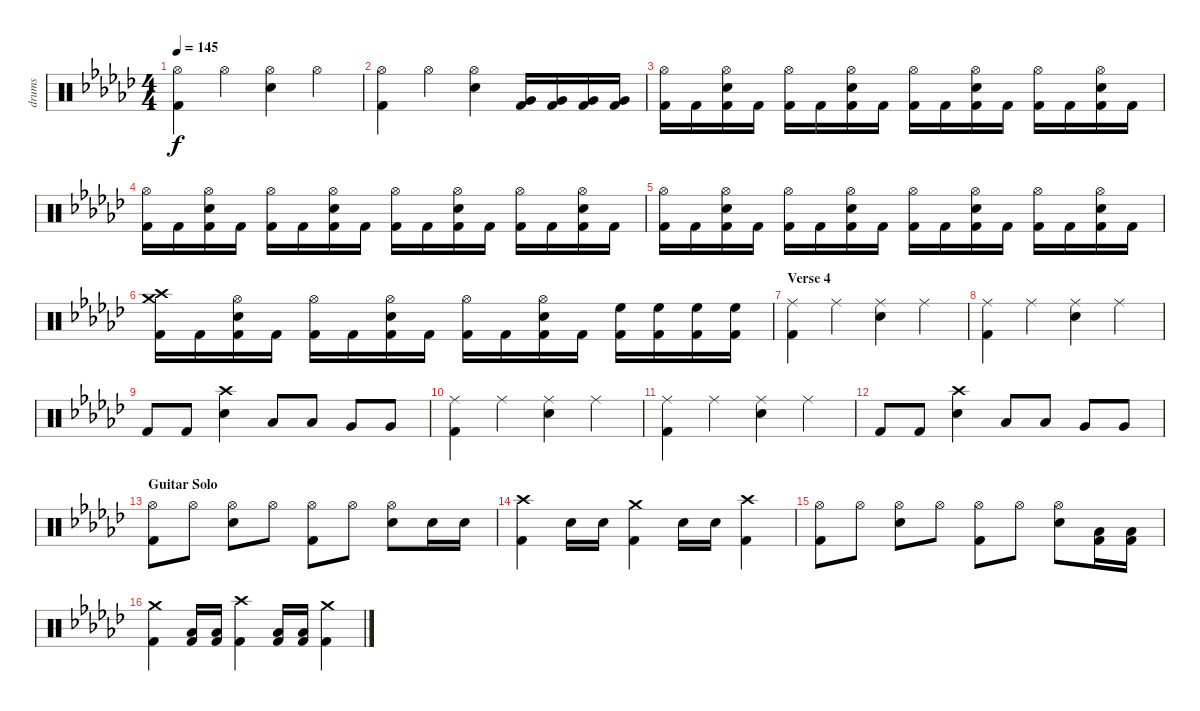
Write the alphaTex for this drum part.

\track ("drums" "drums") {instrument percussion}
\staff {score}
\articulation defaults
\ts (4 4)
\tempo 145
\clef neutral
\ks gb
("Hi-Hat (open)" "Kick (hit) 2").4{dy f} "Hi-Hat (open)".4 ("Hi-Hat (open)" "Electric Snare (hit)").4 "Hi-Hat (open)".4 |
("Hi-Hat (open)" "Kick (hit) 2").4 "Hi-Hat (open)".4 ("Hi-Hat (open)" "Electric Snare (hit)").4 ("Very Low Tom (hit)" "Kick (hit) 2").16 ("Very Low Tom (hit)" "Kick (hit) 2").16 ("Very Low Tom (hit)" "Kick (hit) 2").16 ("Very Low Tom (hit)" "Kick (hit) 2").16 |
("Hi-Hat (open)" "Kick (hit) 2").16 "Kick (hit) 2".16 ("Hi-Hat (open)" "Electric Snare (hit)" "Kick (hit) 2").16 "Kick (hit) 2".16 ("Hi-Hat (open)" "Kick (hit) 2").16 "Kick (hit) 2".16 ("Hi-Hat (open)" "Electric Snare (hit)" "Kick (hit) 2").16 "Kick (hit) 2".16 ("Hi-Hat (open)" "Kick (hit) 2").16 "Kick (hit) 2".16 ("Hi-Hat (open)" "Electric Snare (hit)" "Kick (hit) 2").16 "Kick (hit) 2".16 ("Hi-Hat (open)" "Kick (hit) 2").16 "Kick (hit) 2".16 ("Hi-Hat (open)" "Electric Snare (hit)" "Kick (hit) 2").16 "Kick (hit) 2".16 |
("Hi-Hat (open)" "Kick (hit) 2").16 "Kick (hit) 2".16 ("Hi-Hat (open)" "Electric Snare (hit)" "Kick (hit) 2").16 "Kick (hit) 2".16 ("Hi-Hat (open)" "Kick (hit) 2").16 "Kick (hit) 2".16 ("Hi-Hat (open)" "Electric Snare (hit)" "Kick (hit) 2").16 "Kick (hit) 2".16 ("Hi-Hat (open)" "Kick (hit) 2").16 "Kick (hit) 2".16 ("Hi-Hat (open)" "Electric Snare (hit)" "Kick (hit) 2").16 "Kick (hit) 2".16 ("Hi-Hat (open)" "Kick (hit) 2").16 "Kick (hit) 2".16 ("Hi-Hat (open)" "Electric Snare (hit)" "Kick (hit) 2").16 "Kick (hit) 2".16 |
("Hi-Hat (open)" "Kick (hit) 2").16 "Kick (hit) 2".16 ("Hi-Hat (open)" "Electric Snare (hit)" "Kick (hit) 2").16 "Kick (hit) 2".16 ("Hi-Hat (open)" "Kick (hit) 2").16 "Kick (hit) 2".16 ("Hi-Hat (open)" "Electric Snare (hit)" "Kick (hit) 2").16 "Kick (hit) 2".16 ("Hi-Hat (open)" "Kick (hit) 2").16 "Kick (hit) 2".16 ("Hi-Hat (open)" "Electric Snare (hit)" "Kick (hit) 2").16 "Kick (hit) 2".16 ("Hi-Hat (open)" "Kick (hit) 2").16 "Kick (hit) 2".16 ("Hi-Hat (open)" "Electric Snare (hit)" "Kick (hit) 2").16 "Kick (hit) 2".16 |
("Crash high (hit)" "Crash medium (hit)" "Kick (hit) 2").16 "Kick (hit) 2".16 ("Hi-Hat (open)" "Electric Snare (hit)" "Kick (hit) 2").16 "Kick (hit) 2".16 ("Hi-Hat (open)" "Kick (hit) 2").16 "Kick (hit) 2".16 ("Hi-Hat (open)" "Electric Snare (hit)" "Kick (hit) 2").16 "Kick (hit) 2".16 ("Hi-Hat (open)" "Kick (hit) 2").16 "Kick (hit) 2".16 ("Hi-Hat (open)" "Electric Snare (hit)" "Kick (hit) 2").16 "Kick (hit) 2".16 ("High Floor Tom (hit)" "Kick (hit) 2").16 ("High Floor Tom (hit)" "Kick (hit) 2").16 ("High Floor Tom (hit)" "Kick (hit) 2").16 ("High Floor Tom (hit)" "Kick (hit) 2").16 |
\section ("" "Verse 4")
("Ride (middle)" "Kick (hit) 2").4 "Ride (middle)".4 ("Ride (middle)" "Electric Snare (hit)").4 "Ride (middle)".4 |
("Ride (middle)" "Kick (hit) 2").4 "Ride (middle)".4 ("Ride (middle)" "Electric Snare (hit)").4 "Ride (middle)".4 |
"Kick (hit) 2".8 "Kick (hit) 2".8 ("Crash high (hit)" "Electric Snare (hit)").4 "Low Tom (hit)".8 "Low Tom (hit)".8 "Very Low Tom (hit)".8 "Very Low Tom (hit)".8 |
("Ride (middle)" "Kick (hit) 2").4 "Ride (middle)".4 ("Ride (middle)" "Electric Snare (hit)").4 "Ride (middle)".4 |
("Ride (middle)" "Kick (hit) 2").4 "Ride (middle)".4 ("Ride (middle)" "Electric Snare (hit)").4 "Ride (middle)".4 |
"Kick (hit) 2".8 "Kick (hit) 2".8 ("Crash high (hit)" "Electric Snare (hit)").4 "Low Tom (hit)".8 "Low Tom (hit)".8 "Very Low Tom (hit)".8 "Very Low Tom (hit)".8 |
\section ("" "Guitar Solo")
("Hi-Hat (open)" "Kick (hit) 2").8 "Hi-Hat (open)".8 ("Hi-Hat (open)" "Electric Snare (hit)").8 "Hi-Hat (open)".8 ("Hi-Hat (open)" "Kick (hit) 2").8 "Hi-Hat (open)".8 ("Hi-Hat (open)" "Electric Snare (hit)").8 "Snare (hit) 2".16 "Snare (hit) 2".16 |
("Crash high (hit)" "Kick (hit) 2").4 "Snare (hit) 2".16 "Snare (hit) 2".16 ("Crash medium (hit)" "Kick (hit) 2").4 "Snare (hit) 2".16 "Snare (hit) 2".16 ("Crash high (hit)" "Kick (hit) 2").4 |
("Hi-Hat (open)" "Kick (hit) 2").8 "Hi-Hat (open)".8 ("Hi-Hat (open)" "Electric Snare (hit)").8 "Hi-Hat (open)".8 ("Hi-Hat (open)" "Kick (hit) 2").8 "Hi-Hat (open)".8 ("Hi-Hat (open)" "Electric Snare (hit)").8 ("Low Tom (hit)" "Kick (hit) 2").16 ("Low Tom (hit)" "Kick (hit) 2").16 |
("Crash medium (hit)" "Kick (hit) 2").4 ("Low Tom (hit)" "Kick (hit) 2").16 ("Low Tom (hit)" "Kick (hit) 2").16 ("Crash high (hit)" "Kick (hit) 2").4 ("Low Tom (hit)" "Kick (hit) 2").16 ("Low Tom (hit)" "Kick (hit) 2").16 ("Crash medium (hit)" "Kick (hit) 2").4
